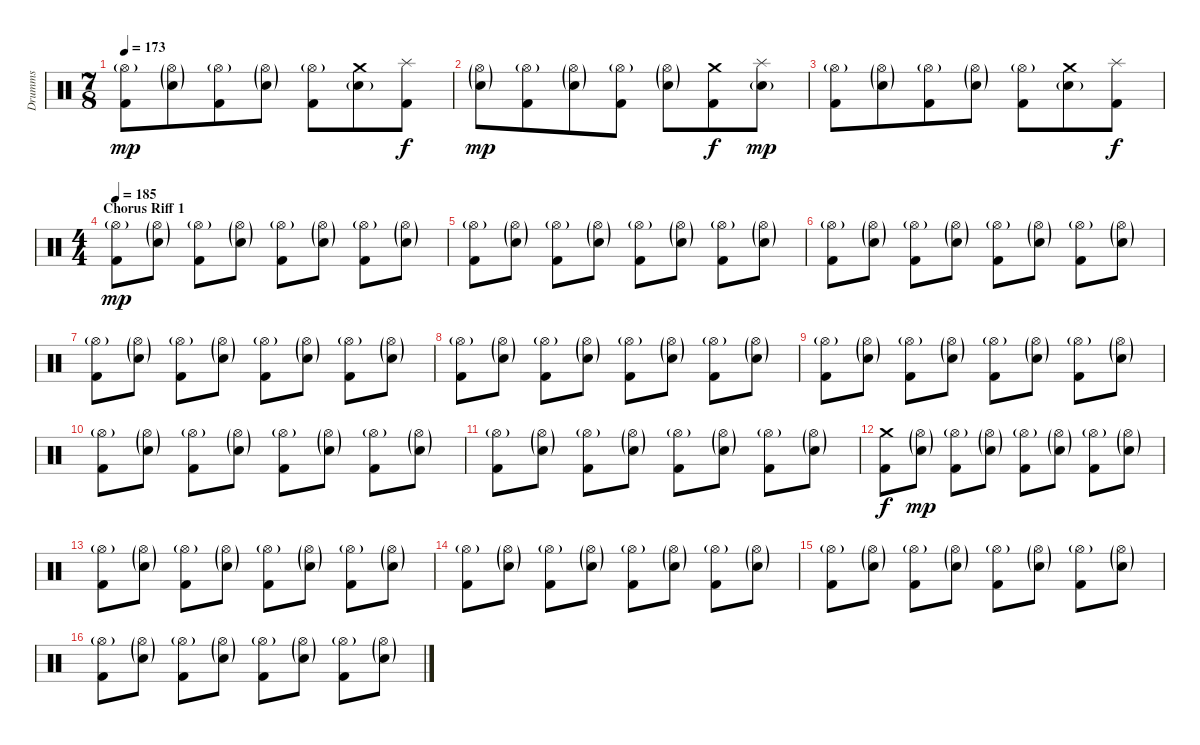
\track ("Drumms" "Drumms") {instrument percussion}
\staff {score}
\articulation defaults
\ts (7 8)
\tempo 173
\clef neutral
\ks c
("Hi-Hat (open)"{g} "Kick (hit) 2").8{dy mp} ("Hi-Hat (open)"{g} "Snare (hit) 2"{g}).8 ("Hi-Hat (open)"{g} "Kick (hit) 2").8 ("Hi-Hat (open)"{g} "Snare (hit) 2"{g}).8 ("Hi-Hat (open)"{g} "Kick (hit) 2").8 ("Crash medium (hit)" "Snare (hit) 2"{g}).8 ("Splash (hit)" "Kick (hit) 2").8{dy f} |
("Hi-Hat (open)"{g} "Snare (hit) 2"{g}).8{dy mp} ("Hi-Hat (open)"{g} "Kick (hit) 2").8 ("Hi-Hat (open)"{g} "Snare (hit) 2"{g}).8 ("Hi-Hat (open)"{g} "Kick (hit) 2").8 ("Hi-Hat (open)"{g} "Snare (hit) 2"{g}).8 ("Crash medium (hit)" "Kick (hit) 2").8{dy f} ("Splash (hit)" "Snare (hit) 2"{g}).8{dy mp} |
("Hi-Hat (open)"{g} "Kick (hit) 2").8 ("Hi-Hat (open)"{g} "Snare (hit) 2"{g}).8 ("Hi-Hat (open)"{g} "Kick (hit) 2").8 ("Hi-Hat (open)"{g} "Snare (hit) 2"{g}).8 ("Hi-Hat (open)"{g} "Kick (hit) 2").8 ("Crash medium (hit)" "Snare (hit) 2"{g}).8 ("Splash (hit)" "Kick (hit) 2").8{dy f} |
\ts (4 4)
\section ("" "Chorus Riff 1")
\tempo 185
("Hi-Hat (open)"{g} "Kick (hit) 2").8{dy mp} ("Hi-Hat (open)"{g} "Snare (hit) 2"{g}).8 ("Hi-Hat (open)"{g} "Kick (hit) 2").8 ("Hi-Hat (open)"{g} "Snare (hit) 2"{g}).8 ("Hi-Hat (open)"{g} "Kick (hit) 2").8 ("Hi-Hat (open)"{g} "Snare (hit) 2"{g}).8 ("Hi-Hat (open)"{g} "Kick (hit) 2").8 ("Hi-Hat (open)"{g} "Snare (hit) 2"{g}).8 |
("Hi-Hat (open)"{g} "Kick (hit) 2").8 ("Hi-Hat (open)"{g} "Snare (hit) 2"{g}).8 ("Hi-Hat (open)"{g} "Kick (hit) 2").8 ("Hi-Hat (open)"{g} "Snare (hit) 2"{g}).8 ("Hi-Hat (open)"{g} "Kick (hit) 2").8 ("Hi-Hat (open)"{g} "Snare (hit) 2"{g}).8 ("Hi-Hat (open)"{g} "Kick (hit) 2").8 ("Hi-Hat (open)"{g} "Snare (hit) 2"{g}).8 |
("Hi-Hat (open)"{g} "Kick (hit) 2").8 ("Hi-Hat (open)"{g} "Snare (hit) 2"{g}).8 ("Hi-Hat (open)"{g} "Kick (hit) 2").8 ("Hi-Hat (open)"{g} "Snare (hit) 2"{g}).8 ("Hi-Hat (open)"{g} "Kick (hit) 2").8 ("Hi-Hat (open)"{g} "Snare (hit) 2"{g}).8 ("Hi-Hat (open)"{g} "Kick (hit) 2").8 ("Hi-Hat (open)"{g} "Snare (hit) 2"{g}).8 |
("Hi-Hat (open)"{g} "Kick (hit) 2").8 ("Hi-Hat (open)"{g} "Snare (hit) 2"{g}).8 ("Hi-Hat (open)"{g} "Kick (hit) 2").8 ("Hi-Hat (open)"{g} "Snare (hit) 2"{g}).8 ("Hi-Hat (open)"{g} "Kick (hit) 2").8 ("Hi-Hat (open)"{g} "Snare (hit) 2"{g}).8 ("Hi-Hat (open)"{g} "Kick (hit) 2").8 ("Hi-Hat (open)"{g} "Snare (hit) 2"{g}).8 |
("Hi-Hat (open)"{g} "Kick (hit) 2").8 ("Hi-Hat (open)"{g} "Snare (hit) 2"{g}).8 ("Hi-Hat (open)"{g} "Kick (hit) 2").8 ("Hi-Hat (open)"{g} "Snare (hit) 2"{g}).8 ("Hi-Hat (open)"{g} "Kick (hit) 2").8 ("Hi-Hat (open)"{g} "Snare (hit) 2"{g}).8 ("Hi-Hat (open)"{g} "Kick (hit) 2").8 ("Hi-Hat (open)"{g} "Snare (hit) 2"{g}).8 |
("Hi-Hat (open)"{g} "Kick (hit) 2").8 ("Hi-Hat (open)"{g} "Snare (hit) 2"{g}).8 ("Hi-Hat (open)"{g} "Kick (hit) 2").8 ("Hi-Hat (open)"{g} "Snare (hit) 2"{g}).8 ("Hi-Hat (open)"{g} "Kick (hit) 2").8 ("Hi-Hat (open)"{g} "Snare (hit) 2"{g}).8 ("Hi-Hat (open)"{g} "Kick (hit) 2").8 ("Hi-Hat (open)"{g} "Snare (hit) 2"{g}).8 |
("Hi-Hat (open)"{g} "Kick (hit) 2").8 ("Hi-Hat (open)"{g} "Snare (hit) 2"{g}).8 ("Hi-Hat (open)"{g} "Kick (hit) 2").8 ("Hi-Hat (open)"{g} "Snare (hit) 2"{g}).8 ("Hi-Hat (open)"{g} "Kick (hit) 2").8 ("Hi-Hat (open)"{g} "Snare (hit) 2"{g}).8 ("Hi-Hat (open)"{g} "Kick (hit) 2").8 ("Hi-Hat (open)"{g} "Snare (hit) 2"{g}).8 |
("Hi-Hat (open)"{g} "Kick (hit) 2").8 ("Hi-Hat (open)"{g} "Snare (hit) 2"{g}).8 ("Hi-Hat (open)"{g} "Kick (hit) 2").8 ("Hi-Hat (open)"{g} "Snare (hit) 2"{g}).8 ("Hi-Hat (open)"{g} "Kick (hit) 2").8 ("Hi-Hat (open)"{g} "Snare (hit) 2"{g}).8 ("Hi-Hat (open)"{g} "Kick (hit) 2").8 ("Hi-Hat (open)"{g} "Snare (hit) 2"{g}).8 |
("Crash medium (hit)" "Kick (hit) 2").8{dy f} ("Hi-Hat (open)"{g} "Snare (hit) 2"{g}).8{dy mp} ("Hi-Hat (open)"{g} "Kick (hit) 2").8 ("Hi-Hat (open)"{g} "Snare (hit) 2"{g}).8 ("Hi-Hat (open)"{g} "Kick (hit) 2").8 ("Hi-Hat (open)"{g} "Snare (hit) 2"{g}).8 ("Hi-Hat (open)"{g} "Kick (hit) 2").8 ("Hi-Hat (open)"{g} "Snare (hit) 2"{g}).8 |
("Hi-Hat (open)"{g} "Kick (hit) 2").8 ("Hi-Hat (open)"{g} "Snare (hit) 2"{g}).8 ("Hi-Hat (open)"{g} "Kick (hit) 2").8 ("Hi-Hat (open)"{g} "Snare (hit) 2"{g}).8 ("Hi-Hat (open)"{g} "Kick (hit) 2").8 ("Hi-Hat (open)"{g} "Snare (hit) 2"{g}).8 ("Hi-Hat (open)"{g} "Kick (hit) 2").8 ("Hi-Hat (open)"{g} "Snare (hit) 2"{g}).8 |
("Hi-Hat (open)"{g} "Kick (hit) 2").8 ("Hi-Hat (open)"{g} "Snare (hit) 2"{g}).8 ("Hi-Hat (open)"{g} "Kick (hit) 2").8 ("Hi-Hat (open)"{g} "Snare (hit) 2"{g}).8 ("Hi-Hat (open)"{g} "Kick (hit) 2").8 ("Hi-Hat (open)"{g} "Snare (hit) 2"{g}).8 ("Hi-Hat (open)"{g} "Kick (hit) 2").8 ("Hi-Hat (open)"{g} "Snare (hit) 2"{g}).8 |
("Hi-Hat (open)"{g} "Kick (hit) 2").8 ("Hi-Hat (open)"{g} "Snare (hit) 2"{g}).8 ("Hi-Hat (open)"{g} "Kick (hit) 2").8 ("Hi-Hat (open)"{g} "Snare (hit) 2"{g}).8 ("Hi-Hat (open)"{g} "Kick (hit) 2").8 ("Hi-Hat (open)"{g} "Snare (hit) 2"{g}).8 ("Hi-Hat (open)"{g} "Kick (hit) 2").8 ("Hi-Hat (open)"{g} "Snare (hit) 2"{g}).8 |
("Hi-Hat (open)"{g} "Kick (hit) 2").8 ("Hi-Hat (open)"{g} "Snare (hit) 2"{g}).8 ("Hi-Hat (open)"{g} "Kick (hit) 2").8 ("Hi-Hat (open)"{g} "Snare (hit) 2"{g}).8 ("Hi-Hat (open)"{g} "Kick (hit) 2").8 ("Hi-Hat (open)"{g} "Snare (hit) 2"{g}).8 ("Hi-Hat (open)"{g} "Kick (hit) 2").8 ("Hi-Hat (open)"{g} "Snare (hit) 2"{g}).8
